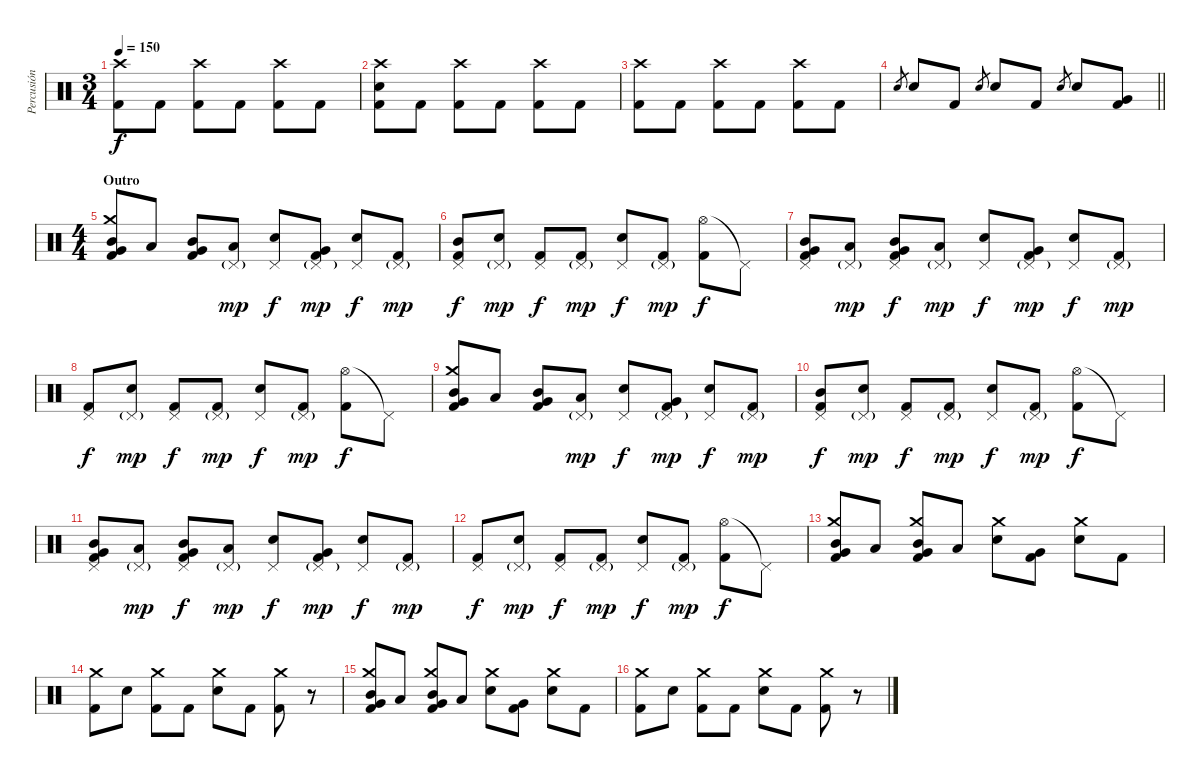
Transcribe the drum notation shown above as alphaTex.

\track ("Percusión" "Percusión") {instrument percussion}
\staff {score}
\articulation defaults
\ts (3 4)
\tempo 150
\clef neutral
\ks c
("Crash high (hit)" "Kick (hit) 2").8{dy f} "Kick (hit) 2".8 ("Crash high (hit)" "Kick (hit) 2").8 "Kick (hit) 2".8 ("Crash high (hit)" "Kick (hit) 2").8 "Kick (hit) 2".8 |
("Crash high (hit)" "Electric Snare (hit)" "Kick (hit) 2").8 "Kick (hit) 2".8 ("Crash high (hit)" "Kick (hit) 2").8 "Kick (hit) 2".8 ("Crash high (hit)" "Kick (hit) 2").8 "Kick (hit) 2".8 |
("Crash high (hit)" "Kick (hit) 2").8 "Kick (hit) 2".8 ("Crash high (hit)" "Kick (hit) 2").8 "Kick (hit) 2".8 ("Crash high (hit)" "Kick (hit) 2").8 "Kick (hit) 2".8 |
\barLineRight lightlight "Electric Snare (hit)".8{gr} "Electric Snare (hit)".8 "Kick (hit) 2".8 "Electric Snare (hit)".8{gr} "Electric Snare (hit)".8 "Kick (hit) 2".8 "Electric Snare (hit)".8{gr} "Electric Snare (hit)".8
("Very Low Tom (hit)" "Kick (hit) 2").8 |
\ts (4 4)
\section ("" "Outro")
("Crash medium (hit)" "Mid Tom (hit)" "Very Low Tom (hit)" "Kick (hit) 2").8 "Low Tom (hit)".8 ("Mid Tom (hit)" "Very Low Tom (hit)" "Kick (hit) 2").8 ("Pedal Hi-Hat (hit)"{g} "Low Tom (hit)").8{dy mp} ("Pedal Hi-Hat (hit)" "Electric Snare (hit)").8{dy f} ("Pedal Hi-Hat (hit)"{g} "Very Low Tom (hit)" "Kick (hit) 2").8{dy mp} ("Pedal Hi-Hat (hit)" "Electric Snare (hit)").8{dy f} ("Pedal Hi-Hat (hit)"{g} "Kick (hit) 2").8{dy mp} |
("Pedal Hi-Hat (hit)" "Mid Tom (hit)" "Kick (hit) 2").8{dy f} ("Pedal Hi-Hat (hit)"{g} "Electric Snare (hit)").8{dy mp} ("Pedal Hi-Hat (hit)" "Kick (hit) 2").8{dy f} ("Pedal Hi-Hat (hit)"{g} "Kick (hit) 2").8{dy mp} ("Pedal Hi-Hat (hit)" "Electric Snare (hit)").8{dy f} ("Pedal Hi-Hat (hit)"{g} "Kick (hit) 2").8{dy mp} ("Hi-Hat (open)" "Kick (hit) 2").8{dy f} "Pedal Hi-Hat (hit)"{t}.8 |
("Pedal Hi-Hat (hit)" "Mid Tom (hit)" "Very Low Tom (hit)" "Kick (hit) 2").8 ("Pedal Hi-Hat (hit)"{g} "Low Tom (hit)").8{dy mp} ("Pedal Hi-Hat (hit)" "Mid Tom (hit)" "Very Low Tom (hit)" "Kick (hit) 2").8{dy f} ("Pedal Hi-Hat (hit)"{g} "Low Tom (hit)").8{dy mp} ("Pedal Hi-Hat (hit)" "Electric Snare (hit)").8{dy f} ("Pedal Hi-Hat (hit)"{g} "Very Low Tom (hit)" "Kick (hit) 2").8{dy mp} ("Pedal Hi-Hat (hit)" "Electric Snare (hit)").8{dy f} ("Pedal Hi-Hat (hit)"{g} "Kick (hit) 2").8{dy mp} |
("Pedal Hi-Hat (hit)" "Kick (hit) 2").8{dy f} ("Pedal Hi-Hat (hit)"{g} "Electric Snare (hit)").8{dy mp} ("Pedal Hi-Hat (hit)" "Kick (hit) 2").8{dy f} ("Pedal Hi-Hat (hit)"{g} "Kick (hit) 2").8{dy mp} ("Pedal Hi-Hat (hit)" "Electric Snare (hit)").8{dy f} ("Pedal Hi-Hat (hit)"{g} "Kick (hit) 2").8{dy mp} ("Hi-Hat (open)" "Kick (hit) 2").8{dy f} "Pedal Hi-Hat (hit)"{t}.8 |
("Crash medium (hit)" "Mid Tom (hit)" "Very Low Tom (hit)" "Kick (hit) 2").8 "Low Tom (hit)".8 ("Mid Tom (hit)" "Very Low Tom (hit)" "Kick (hit) 2").8 ("Pedal Hi-Hat (hit)"{g} "Low Tom (hit)").8{dy mp} ("Pedal Hi-Hat (hit)" "Electric Snare (hit)").8{dy f} ("Pedal Hi-Hat (hit)"{g} "Very Low Tom (hit)" "Kick (hit) 2").8{dy mp} ("Pedal Hi-Hat (hit)" "Electric Snare (hit)").8{dy f} ("Pedal Hi-Hat (hit)"{g} "Kick (hit) 2").8{dy mp} |
("Pedal Hi-Hat (hit)" "Mid Tom (hit)" "Kick (hit) 2").8{dy f} ("Pedal Hi-Hat (hit)"{g} "Electric Snare (hit)").8{dy mp} ("Pedal Hi-Hat (hit)" "Kick (hit) 2").8{dy f} ("Pedal Hi-Hat (hit)"{g} "Kick (hit) 2").8{dy mp} ("Pedal Hi-Hat (hit)" "Electric Snare (hit)").8{dy f} ("Pedal Hi-Hat (hit)"{g} "Kick (hit) 2").8{dy mp} ("Hi-Hat (open)" "Kick (hit) 2").8{dy f} "Pedal Hi-Hat (hit)"{t}.8 |
("Pedal Hi-Hat (hit)" "Mid Tom (hit)" "Very Low Tom (hit)" "Kick (hit) 2").8 ("Pedal Hi-Hat (hit)"{g} "Low Tom (hit)").8{dy mp} ("Pedal Hi-Hat (hit)" "Mid Tom (hit)" "Very Low Tom (hit)" "Kick (hit) 2").8{dy f} ("Pedal Hi-Hat (hit)"{g} "Low Tom (hit)").8{dy mp} ("Pedal Hi-Hat (hit)" "Electric Snare (hit)").8{dy f} ("Pedal Hi-Hat (hit)"{g} "Very Low Tom (hit)" "Kick (hit) 2").8{dy mp} ("Pedal Hi-Hat (hit)" "Electric Snare (hit)").8{dy f} ("Pedal Hi-Hat (hit)"{g} "Kick (hit) 2").8{dy mp} |
("Pedal Hi-Hat (hit)" "Kick (hit) 2").8{dy f} ("Pedal Hi-Hat (hit)"{g} "Electric Snare (hit)").8{dy mp} ("Pedal Hi-Hat (hit)" "Kick (hit) 2").8{dy f} ("Pedal Hi-Hat (hit)"{g} "Kick (hit) 2").8{dy mp} ("Pedal Hi-Hat (hit)" "Electric Snare (hit)").8{dy f} ("Pedal Hi-Hat (hit)"{g} "Kick (hit) 2").8{dy mp} ("Hi-Hat (open)" "Kick (hit) 2").8{dy f} "Pedal Hi-Hat (hit)"{t}.8 |
("Crash medium (hit)" "Mid Tom (hit)" "Very Low Tom (hit)" "Kick (hit) 2").8 "Low Tom (hit)".8 ("Crash medium (hit)" "Mid Tom (hit)" "Very Low Tom (hit)" "Kick (hit) 2").8 "Low Tom (hit)".8 ("Crash medium (hit)" "Electric Snare (hit)").8 ("Very Low Tom (hit)" "Kick (hit) 2").8 ("Crash medium (hit)" "Electric Snare (hit)").8 "Kick (hit) 2".8 |
("Crash medium (hit)" "Kick (hit) 2").8 "Electric Snare (hit)".8 ("Crash medium (hit)" "Kick (hit) 2").8 "Kick (hit) 2".8 ("Crash medium (hit)" "Electric Snare (hit)").8 "Kick (hit) 2".8 ("Crash medium (hit)" "Kick (hit) 2").8 r.8 |
("Crash medium (hit)" "Mid Tom (hit)" "Very Low Tom (hit)" "Kick (hit) 2").8 "Low Tom (hit)".8 ("Crash medium (hit)" "Mid Tom (hit)" "Very Low Tom (hit)" "Kick (hit) 2").8 "Low Tom (hit)".8 ("Crash medium (hit)" "Electric Snare (hit)").8 ("Very Low Tom (hit)" "Kick (hit) 2").8 ("Crash medium (hit)" "Electric Snare (hit)").8 "Kick (hit) 2".8 |
("Crash medium (hit)" "Kick (hit) 2").8 "Electric Snare (hit)".8 ("Crash medium (hit)" "Kick (hit) 2").8 "Kick (hit) 2".8 ("Crash medium (hit)" "Electric Snare (hit)").8 "Kick (hit) 2".8 ("Crash medium (hit)" "Kick (hit) 2").8 r.8
